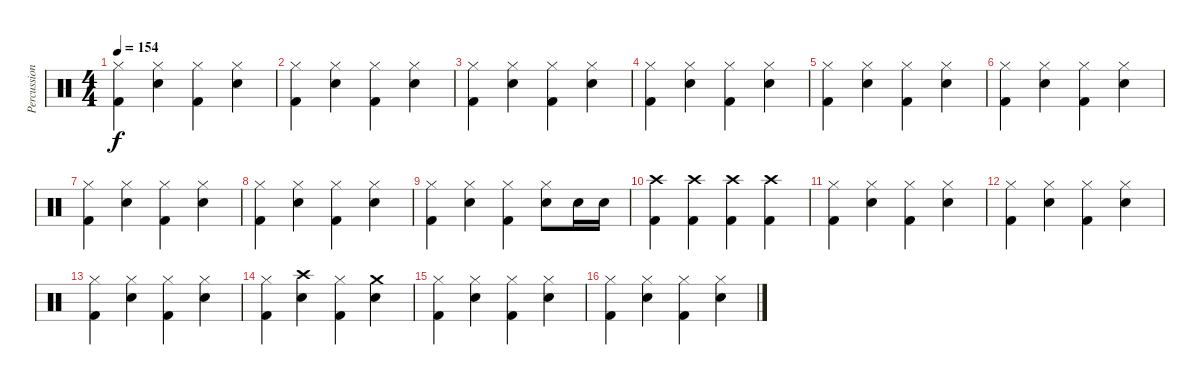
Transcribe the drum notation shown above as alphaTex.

\track ("Percussion" "Percussion") {instrument percussion}
\staff {score}
\articulation defaults
\ts (4 4)
\tempo 154
\clef neutral
\ks c
("Hi-Hat (closed)" "Kick (hit) 2").4{dy f} ("Hi-Hat (closed)" "Snare (hit) 2").4 ("Hi-Hat (closed)" "Kick (hit) 2").4 ("Hi-Hat (closed)" "Snare (hit) 2").4 |
("Hi-Hat (closed)" "Kick (hit) 2").4 ("Hi-Hat (closed)" "Snare (hit) 2").4 ("Hi-Hat (closed)" "Kick (hit) 2").4 ("Hi-Hat (closed)" "Snare (hit) 2").4 |
("Hi-Hat (closed)" "Kick (hit) 2").4 ("Hi-Hat (closed)" "Snare (hit) 2").4 ("Hi-Hat (closed)" "Kick (hit) 2").4 ("Hi-Hat (closed)" "Snare (hit) 2").4 |
("Hi-Hat (closed)" "Kick (hit) 2").4 ("Hi-Hat (closed)" "Snare (hit) 2").4 ("Hi-Hat (closed)" "Kick (hit) 2").4 ("Hi-Hat (closed)" "Snare (hit) 2").4 |
("Hi-Hat (closed)" "Kick (hit) 2").4 ("Hi-Hat (closed)" "Snare (hit) 2").4 ("Hi-Hat (closed)" "Kick (hit) 2").4 ("Hi-Hat (closed)" "Snare (hit) 2").4 |
("Hi-Hat (closed)" "Kick (hit) 2").4 ("Hi-Hat (closed)" "Snare (hit) 2").4 ("Hi-Hat (closed)" "Kick (hit) 2").4 ("Hi-Hat (closed)" "Snare (hit) 2").4 |
("Hi-Hat (closed)" "Kick (hit) 2").4 ("Hi-Hat (closed)" "Snare (hit) 2").4 ("Hi-Hat (closed)" "Kick (hit) 2").4 ("Hi-Hat (closed)" "Snare (hit) 2").4 |
("Hi-Hat (closed)" "Kick (hit) 2").4 ("Hi-Hat (closed)" "Snare (hit) 2").4 ("Hi-Hat (closed)" "Kick (hit) 2").4 ("Hi-Hat (closed)" "Snare (hit) 2").4 |
("Hi-Hat (closed)" "Kick (hit) 2").4 ("Hi-Hat (closed)" "Snare (hit) 2").4 ("Hi-Hat (closed)" "Kick (hit) 2").4 ("Hi-Hat (closed)" "Snare (hit) 2").8 "Snare (hit) 2".16 "Snare (hit) 2".16 |
("Crash high (hit)" "Kick (hit) 2").4 ("Crash high (hit)" "Kick (hit) 2").4 ("Crash high (hit)" "Kick (hit) 2").4 ("Crash high (hit)" "Kick (hit) 2").4 |
("Hi-Hat (closed)" "Kick (hit) 2").4 ("Hi-Hat (closed)" "Snare (hit) 2").4 ("Hi-Hat (closed)" "Kick (hit) 2").4 ("Hi-Hat (closed)" "Snare (hit) 2").4 |
("Hi-Hat (closed)" "Kick (hit) 2").4 ("Hi-Hat (closed)" "Snare (hit) 2").4 ("Hi-Hat (closed)" "Kick (hit) 2").4 ("Hi-Hat (closed)" "Snare (hit) 2").4 |
("Hi-Hat (closed)" "Kick (hit) 2").4 ("Hi-Hat (closed)" "Snare (hit) 2").4 ("Hi-Hat (closed)" "Kick (hit) 2").4 ("Hi-Hat (closed)" "Snare (hit) 2").4 |
("Hi-Hat (closed)" "Kick (hit) 2").4 ("Crash high (hit)" "Snare (hit) 2").4 ("Hi-Hat (closed)" "Kick (hit) 2").4 ("Crash medium (hit)" "Snare (hit) 2").4 |
("Hi-Hat (closed)" "Kick (hit) 2").4 ("Hi-Hat (closed)" "Snare (hit) 2").4 ("Hi-Hat (closed)" "Kick (hit) 2").4 ("Hi-Hat (closed)" "Snare (hit) 2").4 |
("Hi-Hat (closed)" "Kick (hit) 2").4 ("Hi-Hat (closed)" "Snare (hit) 2").4 ("Hi-Hat (closed)" "Kick (hit) 2").4 ("Hi-Hat (closed)" "Snare (hit) 2").4
